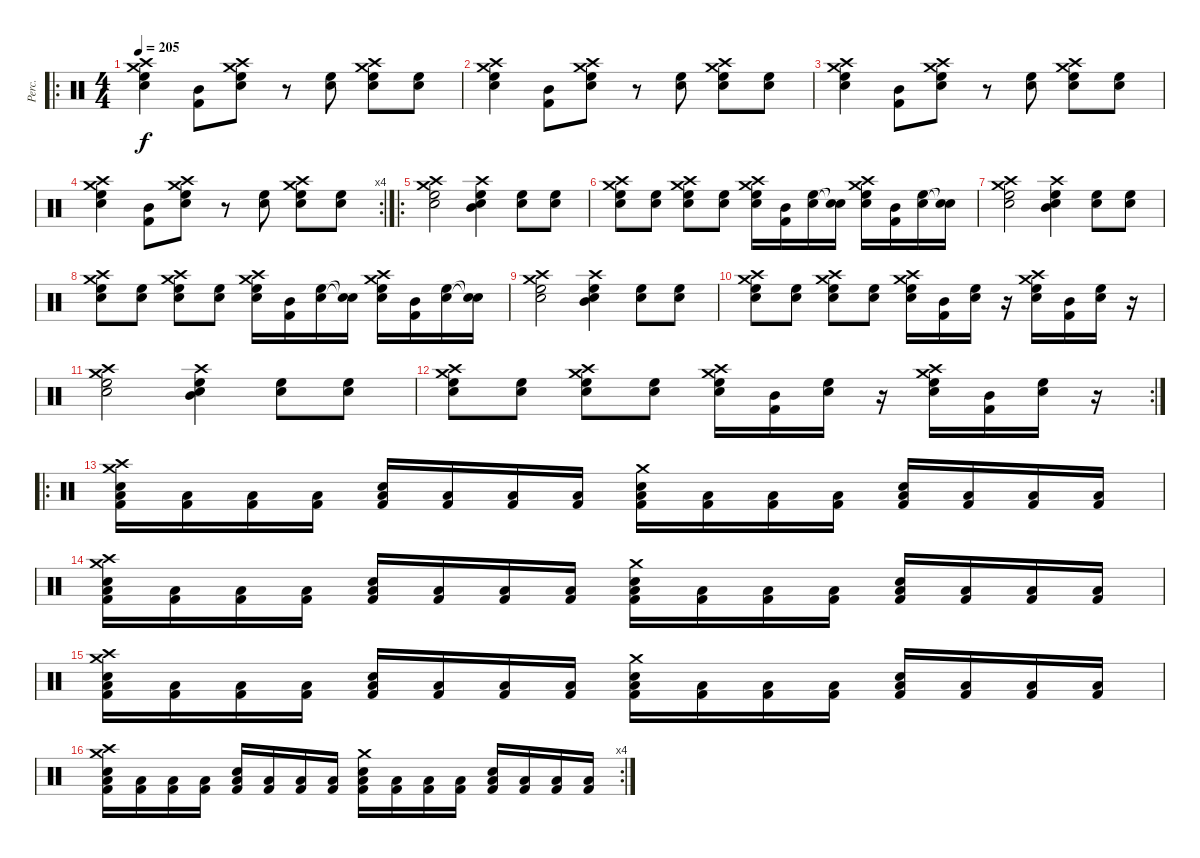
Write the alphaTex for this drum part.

\track ("Perc." "Perc.") {instrument percussion}
\staff {score}
\articulation defaults
\ro
\ts (4 4)
\tempo 205
\clef neutral
\ks c
("Crash high (hit)" "Crash medium (hit)" "High Floor Tom (hit)" "Snare (hit) 2").4{dy f} ("Mid Tom (hit)" "Kick (hit) 2").8 ("Crash high (hit)" "Crash medium (hit)" "High Floor Tom (hit)" "Snare (hit) 2").8 r.8 ("High Floor Tom (hit)" "Snare (hit) 2").8 ("Crash high (hit)" "Crash medium (hit)" "High Floor Tom (hit)" "Snare (hit) 2").8 ("High Floor Tom (hit)" "Snare (hit) 2").8 |
("Crash high (hit)" "Crash medium (hit)" "High Floor Tom (hit)" "Snare (hit) 2").4 ("Mid Tom (hit)" "Kick (hit) 2").8 ("Crash high (hit)" "Crash medium (hit)" "High Floor Tom (hit)" "Snare (hit) 2").8 r.8 ("High Floor Tom (hit)" "Snare (hit) 2").8 ("Crash high (hit)" "Crash medium (hit)" "High Floor Tom (hit)" "Snare (hit) 2").8 ("High Floor Tom (hit)" "Snare (hit) 2").8 |
("Crash high (hit)" "Crash medium (hit)" "High Floor Tom (hit)" "Snare (hit) 2").4 ("Mid Tom (hit)" "Kick (hit) 2").8 ("Crash high (hit)" "Crash medium (hit)" "High Floor Tom (hit)" "Snare (hit) 2").8 r.8 ("High Floor Tom (hit)" "Snare (hit) 2").8 ("Crash high (hit)" "Crash medium (hit)" "High Floor Tom (hit)" "Snare (hit) 2").8 ("High Floor Tom (hit)" "Snare (hit) 2").8 |
\rc 4
("Crash high (hit)" "Crash medium (hit)" "High Floor Tom (hit)" "Snare (hit) 2").4 ("Mid Tom (hit)" "Kick (hit) 2").8 ("Crash high (hit)" "Crash medium (hit)" "High Floor Tom (hit)" "Snare (hit) 2").8 r.8 ("High Floor Tom (hit)" "Snare (hit) 2").8 ("Crash high (hit)" "Crash medium (hit)" "High Floor Tom (hit)" "Snare (hit) 2").8 ("High Floor Tom (hit)" "Snare (hit) 2").8 |
\ro
("Crash high (hit)" "Crash medium (hit)" "High Floor Tom (hit)" "Snare (hit) 2").2 ("Crash high (hit)" "Mid Tom (hit)" "High Floor Tom (hit)" "Snare (hit) 2").4 ("High Floor Tom (hit)" "Snare (hit) 2").8 ("High Floor Tom (hit)" "Snare (hit) 2").8 |
("Crash high (hit)" "Crash medium (hit)" "High Floor Tom (hit)" "Snare (hit) 2").8 ("High Floor Tom (hit)" "Snare (hit) 2").8 ("Crash high (hit)" "Crash medium (hit)" "High Floor Tom (hit)" "Snare (hit) 2").8 ("High Floor Tom (hit)" "Snare (hit) 2").8 ("Crash high (hit)" "Crash medium (hit)" "High Floor Tom (hit)" "Snare (hit) 2").16 ("Mid Tom (hit)" "Kick (hit) 2").16 ("High Floor Tom (hit)" "Snare (hit) 2").16 ("Snare (hit)"{t} "Snare (hit)"{t}).16 ("Crash high (hit)" "Crash medium (hit)" "High Floor Tom (hit)" "Snare (hit) 2").16 ("Mid Tom (hit)" "Kick (hit) 2").16 ("High Floor Tom (hit)" "Snare (hit) 2").16 ("Snare (hit)"{t} "Snare (hit)"{t}).16 |
("Crash high (hit)" "Crash medium (hit)" "High Floor Tom (hit)" "Snare (hit) 2").2 ("Crash high (hit)" "Mid Tom (hit)" "High Floor Tom (hit)" "Snare (hit) 2").4 ("High Floor Tom (hit)" "Snare (hit) 2").8 ("High Floor Tom (hit)" "Snare (hit) 2").8 |
("Crash high (hit)" "Crash medium (hit)" "High Floor Tom (hit)" "Snare (hit) 2").8 ("High Floor Tom (hit)" "Snare (hit) 2").8 ("Crash high (hit)" "Crash medium (hit)" "High Floor Tom (hit)" "Snare (hit) 2").8 ("High Floor Tom (hit)" "Snare (hit) 2").8 ("Crash high (hit)" "Crash medium (hit)" "High Floor Tom (hit)" "Snare (hit) 2").16 ("Mid Tom (hit)" "Kick (hit) 2").16 ("High Floor Tom (hit)" "Snare (hit) 2").16 ("Snare (hit)"{t} "Snare (hit)"{t}).16 ("Crash high (hit)" "Crash medium (hit)" "High Floor Tom (hit)" "Snare (hit) 2").16 ("Mid Tom (hit)" "Kick (hit) 2").16 ("High Floor Tom (hit)" "Snare (hit) 2").16 ("Snare (hit)"{t} "Snare (hit)"{t}).16 |
("Crash high (hit)" "Crash medium (hit)" "High Floor Tom (hit)" "Snare (hit) 2").2 ("Crash high (hit)" "Mid Tom (hit)" "High Floor Tom (hit)" "Snare (hit) 2").4 ("High Floor Tom (hit)" "Snare (hit) 2").8 ("High Floor Tom (hit)" "Snare (hit) 2").8 |
("Crash high (hit)" "Crash medium (hit)" "High Floor Tom (hit)" "Snare (hit) 2").8 ("High Floor Tom (hit)" "Snare (hit) 2").8 ("Crash high (hit)" "Crash medium (hit)" "High Floor Tom (hit)" "Snare (hit) 2").8 ("High Floor Tom (hit)" "Snare (hit) 2").8 ("Crash high (hit)" "Crash medium (hit)" "High Floor Tom (hit)" "Snare (hit) 2").16 ("Mid Tom (hit)" "Kick (hit) 2").16 ("High Floor Tom (hit)" "Snare (hit) 2").16 r.16 ("Crash high (hit)" "Crash medium (hit)" "High Floor Tom (hit)" "Snare (hit) 2").16 ("Mid Tom (hit)" "Kick (hit) 2").16 ("High Floor Tom (hit)" "Snare (hit) 2").16 r.16 |
("Crash high (hit)" "Crash medium (hit)" "High Floor Tom (hit)" "Snare (hit) 2").2 ("Crash high (hit)" "Mid Tom (hit)" "High Floor Tom (hit)" "Snare (hit) 2").4 ("High Floor Tom (hit)" "Snare (hit) 2").8 ("High Floor Tom (hit)" "Snare (hit) 2").8 |
\rc 2
("Crash high (hit)" "Crash medium (hit)" "High Floor Tom (hit)" "Snare (hit) 2").8 ("High Floor Tom (hit)" "Snare (hit) 2").8 ("Crash high (hit)" "Crash medium (hit)" "High Floor Tom (hit)" "Snare (hit) 2").8 ("High Floor Tom (hit)" "Snare (hit) 2").8 ("Crash high (hit)" "Crash medium (hit)" "High Floor Tom (hit)" "Snare (hit) 2").16 ("Mid Tom (hit)" "Kick (hit) 2").16 ("High Floor Tom (hit)" "Snare (hit) 2").16 r.16 ("Crash high (hit)" "Crash medium (hit)" "High Floor Tom (hit)" "Snare (hit) 2").16 ("Mid Tom (hit)" "Kick (hit) 2").16 ("High Floor Tom (hit)" "Snare (hit) 2").16 r.16 |
\ro
("Crash high (hit)" "Crash medium (hit)" "Snare (hit) 2" "Low Floor Tom (hit)" "Kick (hit) 2").16 ("Low Floor Tom (hit)" "Kick (hit) 2").16 ("Low Floor Tom (hit)" "Kick (hit) 2").16 ("Low Floor Tom (hit)" "Kick (hit) 2").16 ("Snare (hit) 2" "Low Floor Tom (hit)" "Kick (hit) 2").16 ("Low Floor Tom (hit)" "Kick (hit) 2").16 ("Low Floor Tom (hit)" "Kick (hit) 2").16 ("Low Floor Tom (hit)" "Kick (hit) 2").16 ("Crash medium (hit)" "Snare (hit) 2" "Low Floor Tom (hit)" "Kick (hit) 2").16 ("Low Floor Tom (hit)" "Kick (hit) 2").16 ("Low Floor Tom (hit)" "Kick (hit) 2").16 ("Low Floor Tom (hit)" "Kick (hit) 2").16 ("Snare (hit) 2" "Low Floor Tom (hit)" "Kick (hit) 2").16 ("Low Floor Tom (hit)" "Kick (hit) 2").16 ("Low Floor Tom (hit)" "Kick (hit) 2").16 ("Low Floor Tom (hit)" "Kick (hit) 2").16 |
("Crash high (hit)" "Crash medium (hit)" "Snare (hit) 2" "Low Floor Tom (hit)" "Kick (hit) 2").16 ("Low Floor Tom (hit)" "Kick (hit) 2").16 ("Low Floor Tom (hit)" "Kick (hit) 2").16 ("Low Floor Tom (hit)" "Kick (hit) 2").16 ("Snare (hit) 2" "Low Floor Tom (hit)" "Kick (hit) 2").16 ("Low Floor Tom (hit)" "Kick (hit) 2").16 ("Low Floor Tom (hit)" "Kick (hit) 2").16 ("Low Floor Tom (hit)" "Kick (hit) 2").16 ("Crash medium (hit)" "Snare (hit) 2" "Low Floor Tom (hit)" "Kick (hit) 2").16 ("Low Floor Tom (hit)" "Kick (hit) 2").16 ("Low Floor Tom (hit)" "Kick (hit) 2").16 ("Low Floor Tom (hit)" "Kick (hit) 2").16 ("Snare (hit) 2" "Low Floor Tom (hit)" "Kick (hit) 2").16 ("Low Floor Tom (hit)" "Kick (hit) 2").16 ("Low Floor Tom (hit)" "Kick (hit) 2").16 ("Low Floor Tom (hit)" "Kick (hit) 2").16 |
("Crash high (hit)" "Crash medium (hit)" "Snare (hit) 2" "Low Floor Tom (hit)" "Kick (hit) 2").16 ("Low Floor Tom (hit)" "Kick (hit) 2").16 ("Low Floor Tom (hit)" "Kick (hit) 2").16 ("Low Floor Tom (hit)" "Kick (hit) 2").16 ("Snare (hit) 2" "Low Floor Tom (hit)" "Kick (hit) 2").16 ("Low Floor Tom (hit)" "Kick (hit) 2").16 ("Low Floor Tom (hit)" "Kick (hit) 2").16 ("Low Floor Tom (hit)" "Kick (hit) 2").16 ("Crash medium (hit)" "Snare (hit) 2" "Low Floor Tom (hit)" "Kick (hit) 2").16 ("Low Floor Tom (hit)" "Kick (hit) 2").16 ("Low Floor Tom (hit)" "Kick (hit) 2").16 ("Low Floor Tom (hit)" "Kick (hit) 2").16 ("Snare (hit) 2" "Low Floor Tom (hit)" "Kick (hit) 2").16 ("Low Floor Tom (hit)" "Kick (hit) 2").16 ("Low Floor Tom (hit)" "Kick (hit) 2").16 ("Low Floor Tom (hit)" "Kick (hit) 2").16 |
\rc 4
("Crash high (hit)" "Crash medium (hit)" "Snare (hit) 2" "Low Floor Tom (hit)" "Kick (hit) 2").16 ("Low Floor Tom (hit)" "Kick (hit) 2").16 ("Low Floor Tom (hit)" "Kick (hit) 2").16 ("Low Floor Tom (hit)" "Kick (hit) 2").16 ("Snare (hit) 2" "Low Floor Tom (hit)" "Kick (hit) 2").16 ("Low Floor Tom (hit)" "Kick (hit) 2").16 ("Low Floor Tom (hit)" "Kick (hit) 2").16 ("Low Floor Tom (hit)" "Kick (hit) 2").16 ("Crash medium (hit)" "Snare (hit) 2" "Low Floor Tom (hit)" "Kick (hit) 2").16 ("Low Floor Tom (hit)" "Kick (hit) 2").16 ("Low Floor Tom (hit)" "Kick (hit) 2").16 ("Low Floor Tom (hit)" "Kick (hit) 2").16 ("Snare (hit) 2" "Low Floor Tom (hit)" "Kick (hit) 2").16 ("Low Floor Tom (hit)" "Kick (hit) 2").16 ("Low Floor Tom (hit)" "Kick (hit) 2").16 ("Low Floor Tom (hit)" "Kick (hit) 2").16
